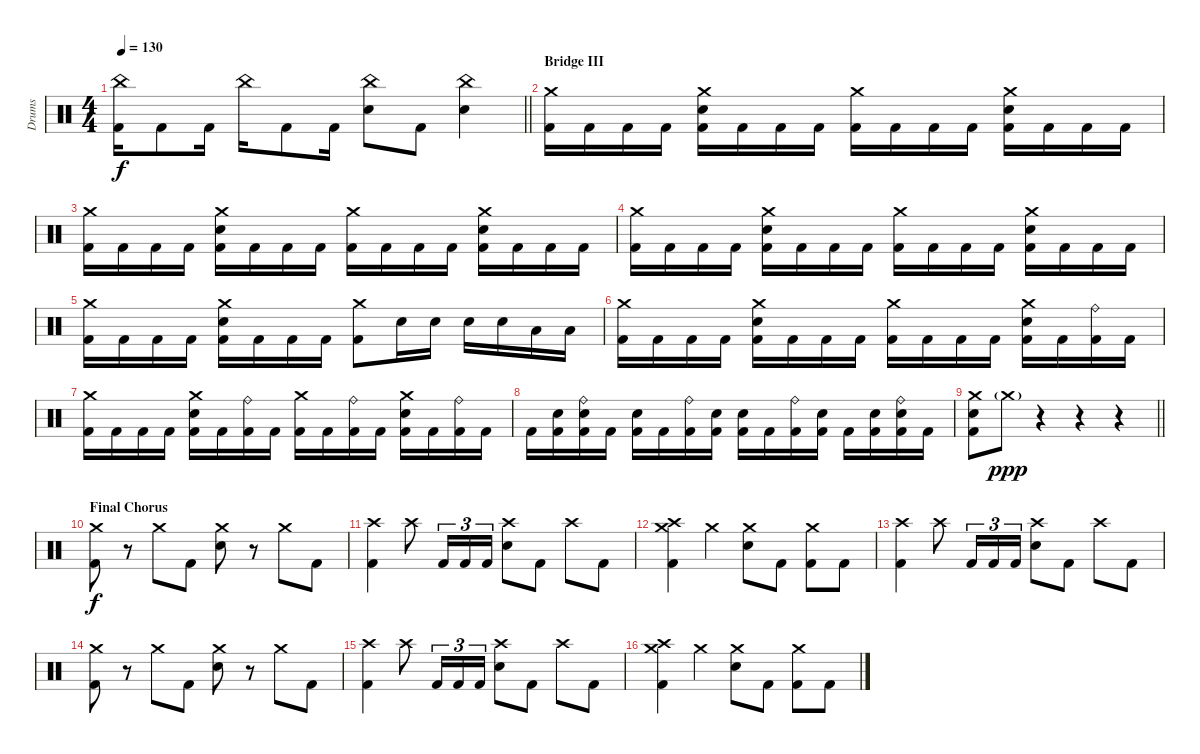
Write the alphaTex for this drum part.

\track ("Drums" "Drums") {instrument percussion}
\staff {score}
\articulation defaults
\ts (4 4)
\tempo 130
\clef neutral
\barLineRight lightlight
\ks c
("China (hit)" "Kick (hit) 2").16{dy f} "Kick (hit) 2".8 "Kick (hit) 2".16 "China (hit)".16 "Kick (hit) 2".8 "Kick (hit) 2".16 ("China (hit)" "Electric Snare (hit)").8 "Kick (hit) 2".8 ("China (hit)" "Electric Snare (hit)").4 |
\section ("" "Bridge III")
("Crash medium (hit)" "Kick (hit) 2").16 "Kick (hit) 2".16 "Kick (hit) 2".16 "Kick (hit) 2".16 ("Crash medium (hit)" "Electric Snare (hit)" "Kick (hit) 2").16 "Kick (hit) 2".16 "Kick (hit) 2".16 "Kick (hit) 2".16 ("Crash medium (hit)" "Kick (hit) 2").16 "Kick (hit) 2".16 "Kick (hit) 2".16 "Kick (hit) 2".16 ("Crash medium (hit)" "Electric Snare (hit)" "Kick (hit) 2").16 "Kick (hit) 2".16 "Kick (hit) 2".16 "Kick (hit) 2".16 |
("Crash medium (hit)" "Kick (hit) 2").16 "Kick (hit) 2".16 "Kick (hit) 2".16 "Kick (hit) 2".16 ("Crash medium (hit)" "Electric Snare (hit)" "Kick (hit) 2").16 "Kick (hit) 2".16 "Kick (hit) 2".16 "Kick (hit) 2".16 ("Crash medium (hit)" "Kick (hit) 2").16 "Kick (hit) 2".16 "Kick (hit) 2".16 "Kick (hit) 2".16 ("Crash medium (hit)" "Electric Snare (hit)" "Kick (hit) 2").16 "Kick (hit) 2".16 "Kick (hit) 2".16 "Kick (hit) 2".16 |
("Crash medium (hit)" "Kick (hit) 2").16 "Kick (hit) 2".16 "Kick (hit) 2".16 "Kick (hit) 2".16 ("Crash medium (hit)" "Electric Snare (hit)" "Kick (hit) 2").16 "Kick (hit) 2".16 "Kick (hit) 2".16 "Kick (hit) 2".16 ("Crash medium (hit)" "Kick (hit) 2").16 "Kick (hit) 2".16 "Kick (hit) 2".16 "Kick (hit) 2".16 ("Crash medium (hit)" "Electric Snare (hit)" "Kick (hit) 2").16 "Kick (hit) 2".16 "Kick (hit) 2".16 "Kick (hit) 2".16 |
("Crash medium (hit)" "Kick (hit) 2").16 "Kick (hit) 2".16 "Kick (hit) 2".16 "Kick (hit) 2".16 ("Crash medium (hit)" "Electric Snare (hit)" "Kick (hit) 2").16 "Kick (hit) 2".16 "Kick (hit) 2".16 "Kick (hit) 2".16 ("Crash medium (hit)" "Kick (hit) 2").8 "Electric Snare (hit)".16 "Electric Snare (hit)".16 "Electric Snare (hit)".16 "Electric Snare (hit)".16 "Low Tom (hit)".16 "Low Tom (hit)".16 |
("Crash medium (hit)" "Kick (hit) 2").16 "Kick (hit) 2".16 "Kick (hit) 2".16 "Kick (hit) 2".16 ("Crash medium (hit)" "Electric Snare (hit)" "Kick (hit) 2").16 "Kick (hit) 2".16 "Kick (hit) 2".16 "Kick (hit) 2".16 ("Crash medium (hit)" "Kick (hit) 2").16 "Kick (hit) 2".16 "Kick (hit) 2".16 "Kick (hit) 2".16 ("Crash medium (hit)" "Electric Snare (hit)" "Kick (hit) 2").16 "Kick (hit) 2".16 ("Ride (bell)" "Kick (hit) 2").16 "Kick (hit) 2".16 |
("Crash medium (hit)" "Kick (hit) 2").16 "Kick (hit) 2".16 "Kick (hit) 2".16 "Kick (hit) 2".16 ("Crash medium (hit)" "Electric Snare (hit)" "Kick (hit) 2").16 "Kick (hit) 2".16 ("Ride (bell)" "Kick (hit) 2").16 "Kick (hit) 2".16 ("Crash medium (hit)" "Kick (hit) 2").16 "Kick (hit) 2".16 ("Ride (bell)" "Kick (hit) 2").16 "Kick (hit) 2".16 ("Crash medium (hit)" "Electric Snare (hit)" "Kick (hit) 2").16 "Kick (hit) 2".16 ("Ride (bell)" "Kick (hit) 2").16 "Kick (hit) 2".16 |
"Kick (hit) 2".16 ("Electric Snare (hit)" "Kick (hit) 2").16 ("Ride (bell)" "Electric Snare (hit)" "Kick (hit) 2").16 "Kick (hit) 2".16 ("Electric Snare (hit)" "Kick (hit) 2").16 "Kick (hit) 2".16 ("Ride (bell)" "Kick (hit) 2").16 ("Electric Snare (hit)" "Kick (hit) 2").16 ("Electric Snare (hit)" "Kick (hit) 2").16 "Kick (hit) 2".16 ("Ride (bell)" "Kick (hit) 2").16 ("Electric Snare (hit)" "Kick (hit) 2").16 "Kick (hit) 2".16 ("Electric Snare (hit)" "Kick (hit) 2").16 ("Ride (bell)" "Electric Snare (hit)" "Kick (hit) 2").16 "Kick (hit) 2".16 |
\barLineRight lightlight
("Crash medium (hit)" "Electric Snare (hit)" "Kick (hit) 2").8 "Crash medium (hit)"{g}.8{dy ppp} r.4 r.4 r.4 |
\section ("" "Final Chorus")
("Crash medium (hit)" "Kick (hit) 2").8{dy f} r.8 "Crash medium (hit)".8 "Kick (hit) 2".8 ("Crash medium (hit)" "Electric Snare (hit)").8 r.8 "Crash medium (hit)".8 "Kick (hit) 2".8 |
("Crash high (hit)" "Kick (hit) 2").4 "Crash high (hit)".8 "Kick (hit) 2".16{tu (3 2)} "Kick (hit) 2".16{tu (3 2)} "Kick (hit) 2".16{tu (3 2)} ("Crash high (hit)" "Electric Snare (hit)").8 "Kick (hit) 2".8 "Crash high (hit)".8 "Kick (hit) 2".8 |
("Crash high (hit)" "Crash medium (hit)" "Kick (hit) 2").4 "Crash medium (hit)".4 ("Crash medium (hit)" "Electric Snare (hit)").8 "Kick (hit) 2".8 ("Crash medium (hit)" "Kick (hit) 2").8 "Kick (hit) 2".8 |
("Crash high (hit)" "Kick (hit) 2").4 "Crash high (hit)".8 "Kick (hit) 2".16{tu (3 2)} "Kick (hit) 2".16{tu (3 2)} "Kick (hit) 2".16{tu (3 2)} ("Crash high (hit)" "Electric Snare (hit)").8 "Kick (hit) 2".8 "Crash high (hit)".8 "Kick (hit) 2".8 |
("Crash medium (hit)" "Kick (hit) 2").8 r.8 "Crash medium (hit)".8 "Kick (hit) 2".8 ("Crash medium (hit)" "Electric Snare (hit)").8 r.8 "Crash medium (hit)".8 "Kick (hit) 2".8 |
("Crash high (hit)" "Kick (hit) 2").4 "Crash high (hit)".8 "Kick (hit) 2".16{tu (3 2)} "Kick (hit) 2".16{tu (3 2)} "Kick (hit) 2".16{tu (3 2)} ("Crash high (hit)" "Electric Snare (hit)").8 "Kick (hit) 2".8 "Crash high (hit)".8 "Kick (hit) 2".8 |
("Crash high (hit)" "Crash medium (hit)" "Kick (hit) 2").4 "Crash medium (hit)".4 ("Crash medium (hit)" "Electric Snare (hit)").8 "Kick (hit) 2".8 ("Crash medium (hit)" "Kick (hit) 2").8 "Kick (hit) 2".8
